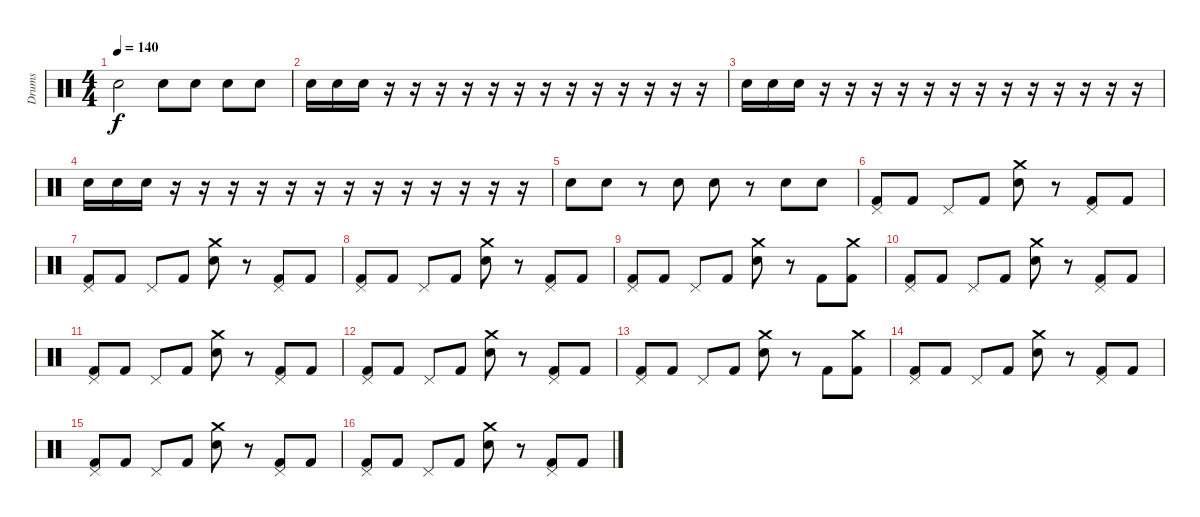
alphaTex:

\track ("Drums" "Drums") {instrument percussion}
\staff {score}
\articulation defaults
\ts (4 4)
\tempo 140
\clef neutral
\ks c "Snare (hit) 2".2{dy f} "Snare (hit) 2".8 "Snare (hit) 2".8 "Snare (hit) 2".8 "Snare (hit) 2".8
|
"Snare (hit) 2".16 "Snare (hit) 2".16 "Snare (hit) 2".16 r.16 r.16 r.16 r.16 r.16 r.16 r.16 r.16 r.16 r.16 r.16 r.16 r.16 |
"Snare (hit) 2".16 "Snare (hit) 2".16 "Snare (hit) 2".16 r.16 r.16 r.16 r.16 r.16 r.16 r.16 r.16 r.16 r.16 r.16 r.16 r.16 |
"Snare (hit) 2".16 "Snare (hit) 2".16 "Snare (hit) 2".16 r.16 r.16 r.16 r.16 r.16 r.16 r.16 r.16 r.16 r.16 r.16 r.16 r.16 |
"Snare (hit) 2".8 "Snare (hit) 2".8 r.8 "Snare (hit) 2".8 "Snare (hit) 2".8 r.8 "Snare (hit) 2".8 "Snare (hit) 2".8 |
("Pedal Hi-Hat (hit)" "Kick (hit) 2").8 "Kick (hit) 2".8 "Pedal Hi-Hat (hit)".8 "Kick (hit) 2".8 ("Crash medium (hit)" "Snare (hit) 2").8 r.8 ("Pedal Hi-Hat (hit)" "Kick (hit) 2").8 "Kick (hit) 2".8 |
("Pedal Hi-Hat (hit)" "Kick (hit) 2").8 "Kick (hit) 2".8 "Pedal Hi-Hat (hit)".8 "Kick (hit) 2".8 ("Crash medium (hit)" "Snare (hit) 2").8 r.8 ("Pedal Hi-Hat (hit)" "Kick (hit) 2").8 "Kick (hit) 2".8 |
("Pedal Hi-Hat (hit)" "Kick (hit) 2").8 "Kick (hit) 2".8 "Pedal Hi-Hat (hit)".8 "Kick (hit) 2".8 ("Crash medium (hit)" "Snare (hit) 2").8 r.8 ("Pedal Hi-Hat (hit)" "Kick (hit) 2").8 "Kick (hit) 2".8 |
("Pedal Hi-Hat (hit)" "Kick (hit) 2").8 "Kick (hit) 2".8 "Pedal Hi-Hat (hit)".8 "Kick (hit) 2".8 ("Crash medium (hit)" "Snare (hit) 2").8 r.8 "Kick (hit) 2".8 ("Crash medium (hit)" "Kick (hit) 2").8 |
("Pedal Hi-Hat (hit)" "Kick (hit) 2").8 "Kick (hit) 2".8 "Pedal Hi-Hat (hit)".8 "Kick (hit) 2".8 ("Crash medium (hit)" "Snare (hit) 2").8 r.8 ("Pedal Hi-Hat (hit)" "Kick (hit) 2").8 "Kick (hit) 2".8 |
("Pedal Hi-Hat (hit)" "Kick (hit) 2").8 "Kick (hit) 2".8 "Pedal Hi-Hat (hit)".8 "Kick (hit) 2".8 ("Crash medium (hit)" "Snare (hit) 2").8 r.8 ("Pedal Hi-Hat (hit)" "Kick (hit) 2").8 "Kick (hit) 2".8 |
("Pedal Hi-Hat (hit)" "Kick (hit) 2").8 "Kick (hit) 2".8 "Pedal Hi-Hat (hit)".8 "Kick (hit) 2".8 ("Crash medium (hit)" "Snare (hit) 2").8 r.8 ("Pedal Hi-Hat (hit)" "Kick (hit) 2").8 "Kick (hit) 2".8 |
("Pedal Hi-Hat (hit)" "Kick (hit) 2").8 "Kick (hit) 2".8 "Pedal Hi-Hat (hit)".8 "Kick (hit) 2".8 ("Crash medium (hit)" "Snare (hit) 2").8 r.8 "Kick (hit) 2".8 ("Crash medium (hit)" "Kick (hit) 2").8 |
("Pedal Hi-Hat (hit)" "Kick (hit) 2").8 "Kick (hit) 2".8 "Pedal Hi-Hat (hit)".8 "Kick (hit) 2".8 ("Crash medium (hit)" "Snare (hit) 2").8 r.8 ("Pedal Hi-Hat (hit)" "Kick (hit) 2").8 "Kick (hit) 2".8 |
("Pedal Hi-Hat (hit)" "Kick (hit) 2").8 "Kick (hit) 2".8 "Pedal Hi-Hat (hit)".8 "Kick (hit) 2".8 ("Crash medium (hit)" "Snare (hit) 2").8 r.8 ("Pedal Hi-Hat (hit)" "Kick (hit) 2").8 "Kick (hit) 2".8 |
("Pedal Hi-Hat (hit)" "Kick (hit) 2").8 "Kick (hit) 2".8 "Pedal Hi-Hat (hit)".8 "Kick (hit) 2".8 ("Crash medium (hit)" "Snare (hit) 2").8 r.8 ("Pedal Hi-Hat (hit)" "Kick (hit) 2").8 "Kick (hit) 2".8
